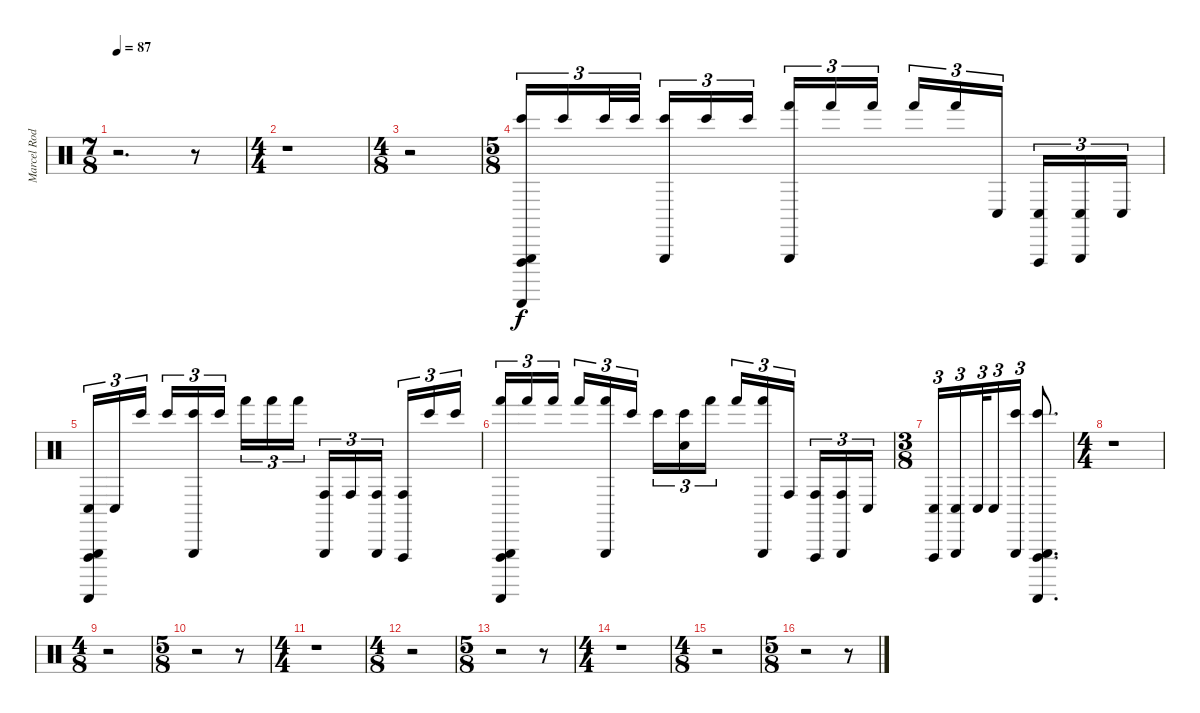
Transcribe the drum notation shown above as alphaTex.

\track ("Marcel Rodriguez-Lopez" "Marcel Rod") {instrument percussion}
\staff {score}
\articulation defaults
\ts (7 8)
\tempo 87
\clef neutral
\ks c
r.2{d dy f} r.8 |
\ts (4 4)
r.1 |
\ts (4 8)
r.2 |
\ts (5 8)
("Triangle (hit)" "Guiro (scrap-return)" "Vibraslap (hit)" "Bongo High (hit)").16{tu (3 2)} "Bongo High (hit)".16{tu (3 2)} "Bongo High (hit)".32{tu (3 2)} "Bongo High (hit)".32{tu (3 2)} ("Triangle (hit)" "Bongo High (hit)").16{tu (3 2)} "Bongo High (hit)".16{tu (3 2)} "Bongo High (hit)".16{tu (3 2)} ("Triangle (hit)" "Hand (hit)").16{tu (3 2)} "Hand (hit)".16{tu (3 2)} "Hand (hit)".16{tu (3 2)} "Hand (hit)".16{tu (3 2)} "Hand (hit)".16{tu (3 2)} "Conga low (hit)".16{tu (3 2)} ("Vibraslap (hit)" "Conga low (hit)").16{tu (3 2)} ("Triangle (hit)" "Conga low (hit)").16{tu (3 2)} "Conga low (hit)".16{tu (3 2)} |
("Triangle (hit)" "Guiro (scrap-return)" "Vibraslap (hit)" "Conga low (hit)").16{tu (3 2)} "Conga low (hit)".16{tu (3 2)} "Bongo High (hit)".16{tu (3 2)} "Bongo High (hit)".16{tu (3 2)} ("Triangle (hit)" "Bongo High (hit)").16{tu (3 2)} "Bongo High (hit)".16{tu (3 2)} "Hand (hit)".16{tu (3 2)} "Hand (hit)".16{tu (3 2)} "Hand (hit)".16{tu (3 2)} ("Triangle (hit)" "Conga high (hit)").16{tu (3 2)} "Conga high (hit)".16{tu (3 2)} ("Triangle (hit)" "Conga high (hit)").16{tu (3 2)} ("Vibraslap (hit)" "Conga high (hit)").16{tu (3 2)} "Bongo High (hit)".16{tu (3 2)} "Bongo High (hit)".16{tu (3 2)} |
("Triangle (hit)" "Guiro (scrap-return)" "Vibraslap (hit)" "Hand (hit)").16{tu (3 2)} "Hand (hit)".16{tu (3 2)} "Hand (hit)".16{tu (3 2)} "Hand (hit)".16{tu (3 2)} ("Triangle (hit)" "Hand (hit)").16{tu (3 2)} "Bongo High (hit)".16{tu (3 2)} "Bongo High (hit)".16{tu (3 2)} ("Snare (hit)" "Bongo High (hit)").16{tu (3 2)} "Hand (hit)".16{tu (3 2)} "Hand (hit)".16{tu (3 2)} ("Triangle (hit)" "Hand (hit)").16{tu (3 2)} "Conga high (hit)".16{tu (3 2)} ("Vibraslap (hit)" "Conga high (hit)").16{tu (3 2)} ("Triangle (hit)" "Conga high (hit)").16{tu (3 2)} "Conga low (hit)".16{tu (3 2)} |
\ts (3 8)
("Vibraslap (hit)" "Conga low (hit)").16{tu (3 2)} ("Triangle (hit)" "Conga low (hit)").16{tu (3 2)} "Conga low (hit)".32{tu (3 2)} "Conga low (hit)".16{tu (3 2)} ("Triangle (hit)" "Bongo High (hit)").16{tu (3 2)} ("Triangle (hit)" "Guiro (scrap-return)" "Vibraslap (hit)" "Bongo High (hit)").8{d} |
\ts (4 4)
r.1 |
\ts (4 8)
r.2 |
\ts (5 8)
r.2 r.8 |
\ts (4 4)
r.1 |
\ts (4 8)
r.2 |
\ts (5 8)
r.2 r.8 |
\ts (4 4)
r.1 |
\ts (4 8)
r.2 |
\ts (5 8)
r.2 r.8
